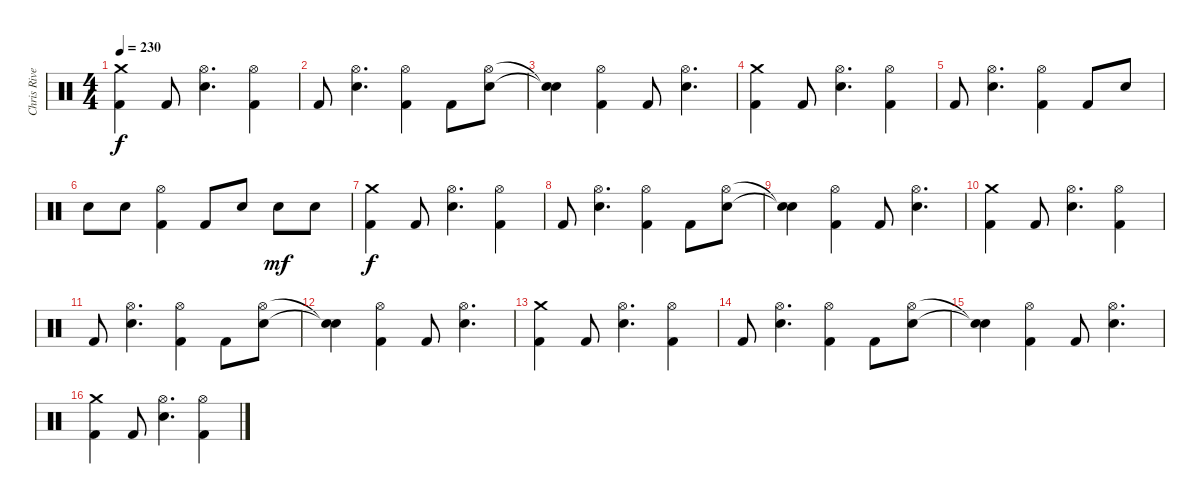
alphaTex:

\track ("Chris Rivers" "Chris Rive") {instrument percussion}
\staff {score}
\articulation defaults
\ts (4 4)
\tempo 230
\clef neutral
\ks c
("Crash medium (hit)" "Kick (hit) 2").4{dy f} "Kick (hit) 2".8 ("Hi-Hat (open)" "Electric Snare (hit)").4{d} ("Hi-Hat (open)" "Kick (hit) 2").4 |
"Kick (hit) 2".8 ("Hi-Hat (open)" "Electric Snare (hit)").4{d} ("Hi-Hat (open)" "Kick (hit) 2").4 "Kick (hit) 2".8 ("Hi-Hat (open)" "Electric Snare (hit)").8 |
("Snare (hit)"{t} "Snare (hit)"{t}).4 ("Hi-Hat (open)" "Kick (hit) 2").4 "Kick (hit) 2".8 ("Hi-Hat (open)" "Electric Snare (hit)").4{d} |
("Crash medium (hit)" "Kick (hit) 2").4 "Kick (hit) 2".8 ("Hi-Hat (open)" "Electric Snare (hit)").4{d} ("Hi-Hat (open)" "Kick (hit) 2").4 |
"Kick (hit) 2".8 ("Hi-Hat (open)" "Electric Snare (hit)").4{d} ("Hi-Hat (open)" "Kick (hit) 2").4 "Kick (hit) 2".8 "Electric Snare (hit)".8 |
"Electric Snare (hit)".8 "Electric Snare (hit)".8 ("Hi-Hat (open)" "Kick (hit) 2").4 "Kick (hit) 2".8 "Electric Snare (hit)".8 "Electric Snare (hit)".8{dy mf} "Electric Snare (hit)".8 |
("Crash medium (hit)" "Kick (hit) 2").4{dy f} "Kick (hit) 2".8 ("Hi-Hat (open)" "Electric Snare (hit)").4{d} ("Hi-Hat (open)" "Kick (hit) 2").4 |
"Kick (hit) 2".8 ("Hi-Hat (open)" "Electric Snare (hit)").4{d} ("Hi-Hat (open)" "Kick (hit) 2").4 "Kick (hit) 2".8 ("Hi-Hat (open)" "Electric Snare (hit)").8 |
("Snare (hit)"{t} "Snare (hit)"{t}).4 ("Hi-Hat (open)" "Kick (hit) 2").4 "Kick (hit) 2".8 ("Hi-Hat (open)" "Electric Snare (hit)").4{d} |
("Crash medium (hit)" "Kick (hit) 2").4 "Kick (hit) 2".8 ("Hi-Hat (open)" "Electric Snare (hit)").4{d} ("Hi-Hat (open)" "Kick (hit) 2").4 |
"Kick (hit) 2".8 ("Hi-Hat (open)" "Electric Snare (hit)").4{d} ("Hi-Hat (open)" "Kick (hit) 2").4 "Kick (hit) 2".8 ("Hi-Hat (open)" "Electric Snare (hit)").8 |
("Snare (hit)"{t} "Snare (hit)"{t}).4 ("Hi-Hat (open)" "Kick (hit) 2").4 "Kick (hit) 2".8 ("Hi-Hat (open)" "Electric Snare (hit)").4{d} |
("Crash medium (hit)" "Kick (hit) 2").4 "Kick (hit) 2".8 ("Hi-Hat (open)" "Electric Snare (hit)").4{d} ("Hi-Hat (open)" "Kick (hit) 2").4 |
"Kick (hit) 2".8 ("Hi-Hat (open)" "Electric Snare (hit)").4{d} ("Hi-Hat (open)" "Kick (hit) 2").4 "Kick (hit) 2".8 ("Hi-Hat (open)" "Electric Snare (hit)").8 |
("Snare (hit)"{t} "Snare (hit)"{t}).4 ("Hi-Hat (open)" "Kick (hit) 2").4 "Kick (hit) 2".8 ("Hi-Hat (open)" "Electric Snare (hit)").4{d} |
("Crash medium (hit)" "Kick (hit) 2").4 "Kick (hit) 2".8 ("Hi-Hat (open)" "Electric Snare (hit)").4{d} ("Hi-Hat (open)" "Kick (hit) 2").4
